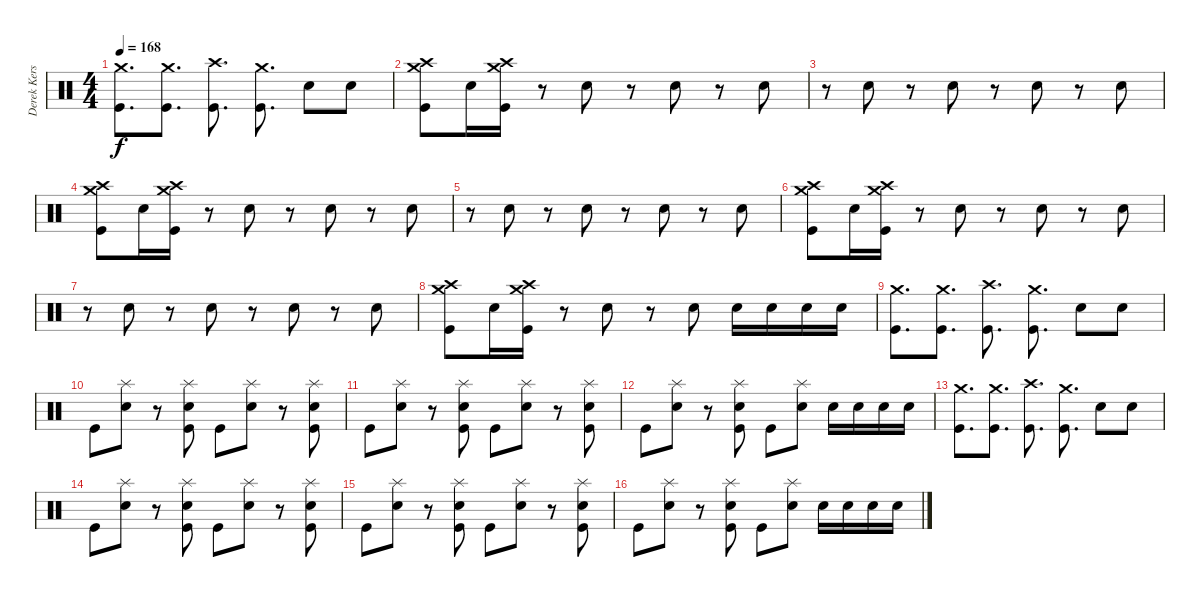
\track ("Derek Kerswill" "Derek Kers") {instrument percussion}
\staff {score}
\articulation defaults
\ts (4 4)
\tempo 168
\clef neutral
\ks c
("Crash medium (hit)" "Kick (hit)").8{d dy f} ("Crash medium (hit)" "Kick (hit)").8{d} ("Crash high (hit)" "Kick (hit)").8{d} ("Crash medium (hit)" "Kick (hit)").8{d} "Electric Snare (hit)".8 "Electric Snare (hit)".8 |
("Crash medium (hit)" "Crash high (hit)" "Kick (hit)").8 "Electric Snare (hit)".16 ("Crash high (hit)" "Crash medium (hit)" "Kick (hit)").16 r.8 "Electric Snare (hit)".8 r.8 "Electric Snare (hit)".8 r.8 "Electric Snare (hit)".8 |
r.8 "Electric Snare (hit)".8 r.8 "Electric Snare (hit)".8 r.8 "Electric Snare (hit)".8 r.8 "Electric Snare (hit)".8 |
("Crash medium (hit)" "Crash high (hit)" "Kick (hit)").8 "Electric Snare (hit)".16 ("Crash high (hit)" "Crash medium (hit)" "Kick (hit)").16 r.8 "Electric Snare (hit)".8 r.8 "Electric Snare (hit)".8 r.8 "Electric Snare (hit)".8 |
r.8 "Electric Snare (hit)".8 r.8 "Electric Snare (hit)".8 r.8 "Electric Snare (hit)".8 r.8 "Electric Snare (hit)".8 |
("Crash medium (hit)" "Crash high (hit)" "Kick (hit)").8 "Electric Snare (hit)".16 ("Crash high (hit)" "Crash medium (hit)" "Kick (hit)").16 r.8 "Electric Snare (hit)".8 r.8 "Electric Snare (hit)".8 r.8 "Electric Snare (hit)".8 |
r.8 "Electric Snare (hit)".8 r.8 "Electric Snare (hit)".8 r.8 "Electric Snare (hit)".8 r.8 "Electric Snare (hit)".8 |
("Crash medium (hit)" "Crash high (hit)" "Kick (hit)").8 "Electric Snare (hit)".16 ("Crash high (hit)" "Crash medium (hit)" "Kick (hit)").16 r.8 "Electric Snare (hit)".8 r.8 "Electric Snare (hit)".8 "Electric Snare (hit)".16 "Electric Snare (hit)".16 "Electric Snare (hit)".16 "Electric Snare (hit)".16 |
("Crash medium (hit)" "Kick (hit)").8{d} ("Crash medium (hit)" "Kick (hit)").8{d} ("Crash high (hit)" "Kick (hit)").8{d} ("Crash medium (hit)" "Kick (hit)").8{d} "Electric Snare (hit)".8 "Electric Snare (hit)".8 |
"Kick (hit)".8 ("Splash (hit)" "Electric Snare (hit)").8 r.8 ("Splash (hit)" "Electric Snare (hit)" "Kick (hit)").8 "Kick (hit)".8 ("Splash (hit)" "Electric Snare (hit)").8 r.8 ("Splash (hit)" "Electric Snare (hit)" "Kick (hit)").8 |
"Kick (hit)".8 ("Splash (hit)" "Electric Snare (hit)").8 r.8 ("Splash (hit)" "Electric Snare (hit)" "Kick (hit)").8 "Kick (hit)".8 ("Splash (hit)" "Electric Snare (hit)").8 r.8 ("Splash (hit)" "Electric Snare (hit)" "Kick (hit)").8 |
"Kick (hit)".8 ("Splash (hit)" "Electric Snare (hit)").8 r.8 ("Splash (hit)" "Electric Snare (hit)" "Kick (hit)").8 "Kick (hit)".8 ("Splash (hit)" "Electric Snare (hit)").8 "Electric Snare (hit)".16 "Electric Snare (hit)".16 "Electric Snare (hit)".16 "Electric Snare (hit)".16 |
("Crash medium (hit)" "Kick (hit)").8{d} ("Crash medium (hit)" "Kick (hit)").8{d} ("Crash high (hit)" "Kick (hit)").8{d} ("Crash medium (hit)" "Kick (hit)").8{d} "Electric Snare (hit)".8 "Electric Snare (hit)".8 |
"Kick (hit)".8 ("Splash (hit)" "Electric Snare (hit)").8 r.8 ("Splash (hit)" "Electric Snare (hit)" "Kick (hit)").8 "Kick (hit)".8 ("Splash (hit)" "Electric Snare (hit)").8 r.8 ("Splash (hit)" "Electric Snare (hit)" "Kick (hit)").8 |
"Kick (hit)".8 ("Splash (hit)" "Electric Snare (hit)").8 r.8 ("Splash (hit)" "Electric Snare (hit)" "Kick (hit)").8 "Kick (hit)".8 ("Splash (hit)" "Electric Snare (hit)").8 r.8 ("Splash (hit)" "Electric Snare (hit)" "Kick (hit)").8 |
"Kick (hit)".8 ("Splash (hit)" "Electric Snare (hit)").8 r.8 ("Splash (hit)" "Electric Snare (hit)" "Kick (hit)").8 "Kick (hit)".8 ("Splash (hit)" "Electric Snare (hit)").8 "Electric Snare (hit)".16 "Electric Snare (hit)".16 "Electric Snare (hit)".16 "Electric Snare (hit)".16
